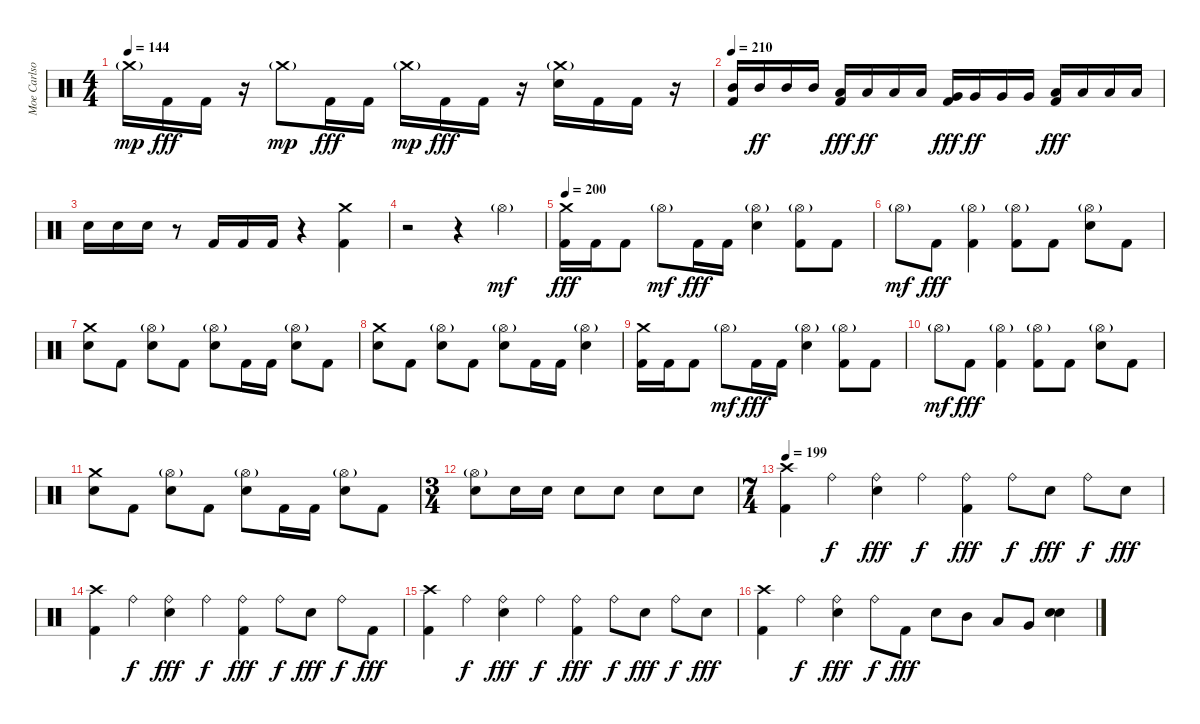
\track ("Moe Carlson" "Moe Carlso") {instrument percussion}
\staff {score}
\articulation defaults
\ts (4 4)
\tempo 144
\clef neutral
\ks c "Crash medium (hit)"{g}.16{dy mp} "Kick (hit) 2".16{dy fff} "Kick (hit) 2".16
r.16 "Crash medium (hit)"{g}.8{dy mp} "Kick (hit) 2".16{dy fff} "Kick (hit) 2".16 "Crash medium (hit)"{g}.16{dy mp} "Kick (hit) 2".16{dy fff} "Kick (hit) 2".16 r.16 ("Crash medium (hit)"{g} "Electric Snare (hit)").16 "Kick (hit) 2".16 "Kick (hit) 2".16 r.16 |
\tempo 210
("Mid Tom (hit)" "Kick (hit) 2").16 "Mid Tom (hit)".16{dy ff} "Mid Tom (hit)".16 "Mid Tom (hit)".16 ("Low Tom (hit)" "Kick (hit) 2").16{dy fff} "Low Tom (hit)".16{dy ff} "Low Tom (hit)".16 "Low Tom (hit)".16 ("Very Low Tom (hit)" "Kick (hit) 2").16{dy fff} "Very Low Tom (hit)".16{dy ff} "Very Low Tom (hit)".16 "Very Low Tom (hit)".16 ("Low Floor Tom (hit)" "Kick (hit) 2").16{dy fff} "Low Floor Tom (hit)".16 "Low Floor Tom (hit)".16 "Low Floor Tom (hit)".16 |
"Electric Snare (hit)".16 "Electric Snare (hit)".16 "Electric Snare (hit)".16 r.8 "Kick (hit) 2".16 "Kick (hit) 2".16 "Kick (hit) 2".16 r.4 ("Crash medium (hit)" "Kick (hit) 2").4 |
r.2 r.4 "Hi-Hat (open)"{g}.4{dy mf} |
\tempo 200
("Crash medium (hit)" "Kick (hit) 2").16{dy fff} "Kick (hit) 2".16 "Kick (hit) 2".8 "Hi-Hat (open)"{g}.8{dy mf} "Kick (hit) 2".16{dy fff} "Kick (hit) 2".16 ("Hi-Hat (open)"{g} "Electric Snare (hit)").4 ("Hi-Hat (open)"{g} "Kick (hit) 2").8 "Kick (hit) 2".8 |
"Hi-Hat (open)"{g}.8{dy mf} "Kick (hit) 2".8{dy fff} ("Hi-Hat (open)"{g} "Kick (hit) 2").4 ("Hi-Hat (open)"{g} "Kick (hit) 2").8 "Kick (hit) 2".8 ("Hi-Hat (open)"{g} "Electric Snare (hit)").8 "Kick (hit) 2".8 |
("Crash medium (hit)" "Electric Snare (hit)").8 "Kick (hit) 2".8 ("Hi-Hat (open)"{g} "Electric Snare (hit)").8 "Kick (hit) 2".8 ("Hi-Hat (open)"{g} "Electric Snare (hit)").8 "Kick (hit) 2".16 "Kick (hit) 2".16 ("Hi-Hat (open)"{g} "Electric Snare (hit)").8 "Kick (hit) 2".8 |
("Crash medium (hit)" "Electric Snare (hit)").8 "Kick (hit) 2".8 ("Hi-Hat (open)"{g} "Electric Snare (hit)").8 "Kick (hit) 2".8 ("Hi-Hat (open)"{g} "Electric Snare (hit)").8 "Kick (hit) 2".16 "Kick (hit) 2".16 ("Hi-Hat (open)"{g} "Electric Snare (hit)").4 |
("Crash medium (hit)" "Kick (hit) 2").16 "Kick (hit) 2".16 "Kick (hit) 2".8 "Hi-Hat (open)"{g}.8{dy mf} "Kick (hit) 2".16{dy fff} "Kick (hit) 2".16 ("Hi-Hat (open)"{g} "Electric Snare (hit)").4 ("Hi-Hat (open)"{g} "Kick (hit) 2").8 "Kick (hit) 2".8 |
"Hi-Hat (open)"{g}.8{dy mf} "Kick (hit) 2".8{dy fff} ("Hi-Hat (open)"{g} "Kick (hit) 2").4 ("Hi-Hat (open)"{g} "Kick (hit) 2").8 "Kick (hit) 2".8 ("Hi-Hat (open)"{g} "Electric Snare (hit)").8 "Kick (hit) 2".8 |
("Crash medium (hit)" "Electric Snare (hit)").8 "Kick (hit) 2".8 ("Hi-Hat (open)"{g} "Electric Snare (hit)").8 "Kick (hit) 2".8 ("Hi-Hat (open)"{g} "Electric Snare (hit)").8 "Kick (hit) 2".16 "Kick (hit) 2".16 ("Hi-Hat (open)"{g} "Electric Snare (hit)").8 "Kick (hit) 2".8 |
\ts (3 4)
("Hi-Hat (open)"{g} "Electric Snare (hit)").8 "Electric Snare (hit)".16 "Electric Snare (hit)".16 "Electric Snare (hit)".8 "Electric Snare (hit)".8 "Electric Snare (hit)".8 "Electric Snare (hit)".8 |
\ts (7 4)
\tempo 199
("Crash high (hit)" "Kick (hit) 2").4 "Ride (bell)".4{dy f} ("Ride (bell)" "Electric Snare (hit)").4{dy fff} "Ride (bell)".4{dy f} ("Ride (bell)" "Kick (hit) 2").4{dy fff} "Ride (bell)".8{dy f} "Electric Snare (hit)".8{dy fff} "Ride (bell)".8{dy f} "Electric Snare (hit)".8{dy fff} |
("Crash high (hit)" "Kick (hit) 2").4 "Ride (bell)".4{dy f} ("Ride (bell)" "Electric Snare (hit)").4{dy fff} "Ride (bell)".4{dy f} ("Ride (bell)" "Kick (hit) 2").4{dy fff} "Ride (bell)".8{dy f} "Electric Snare (hit)".8{dy fff} "Ride (bell)".8{dy f} "Kick (hit) 2".8{dy fff} |
("Crash high (hit)" "Kick (hit) 2").4 "Ride (bell)".4{dy f} ("Ride (bell)" "Electric Snare (hit)").4{dy fff} "Ride (bell)".4{dy f} ("Ride (bell)" "Kick (hit) 2").4{dy fff} "Ride (bell)".8{dy f} "Electric Snare (hit)".8{dy fff} "Ride (bell)".8{dy f} "Electric Snare (hit)".8{dy fff} |
("Crash high (hit)" "Kick (hit) 2").4 "Ride (bell)".4{dy f} ("Ride (bell)" "Electric Snare (hit)").4{dy fff} "Ride (bell)".8{dy f} "Kick (hit) 2".8{dy fff} "Electric Snare (hit)".8 "Mid Tom (hit)".8 "Low Tom (hit)".8 "Very Low Tom (hit)".8 ("Electric Snare (hit)" "Electric Snare (hit)").4
